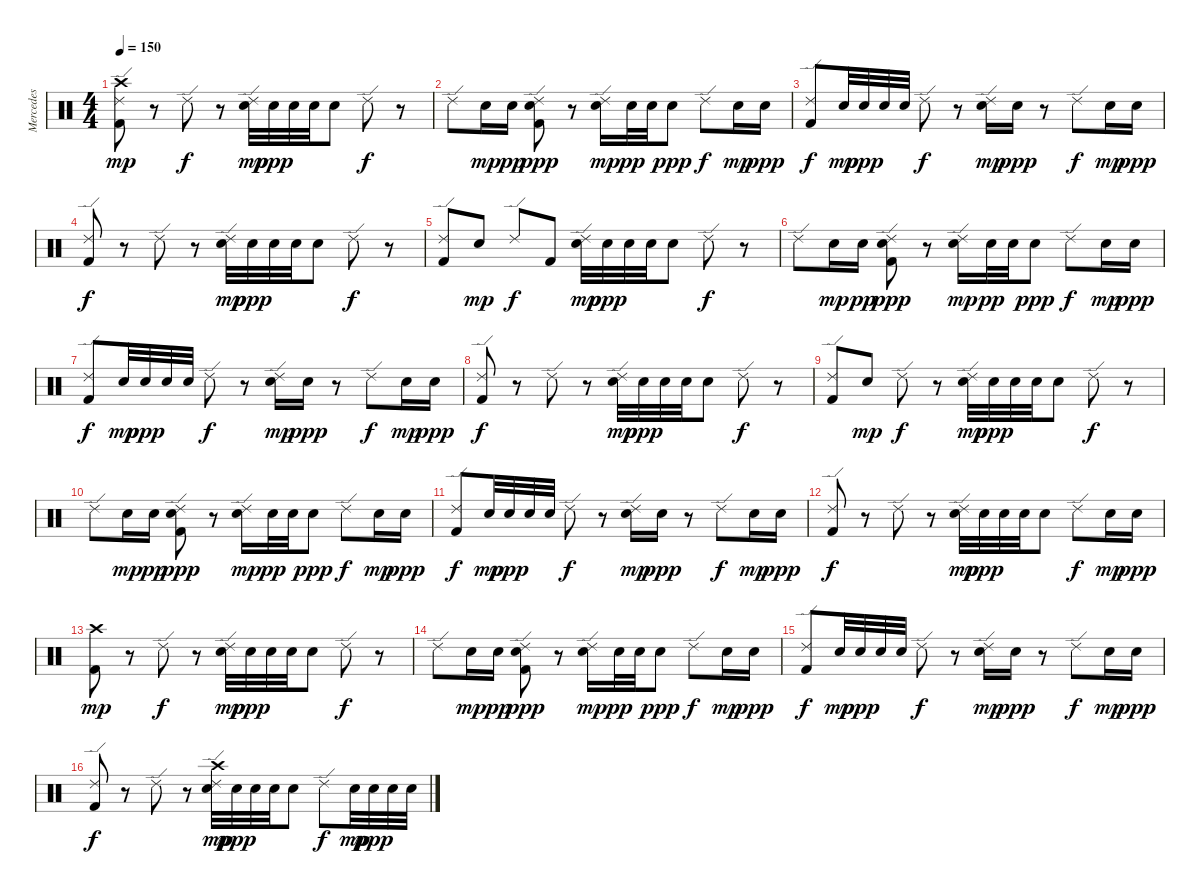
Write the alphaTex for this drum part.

\track ("Mercedes" "Mercedes") {instrument percussion}
\staff {score}
\articulation defaults
\ts (4 4)
\tempo 150
\clef neutral
\ks c
("Crash high (hit)" "Ride (edge) 2" "Kick (hit) 2").8{dy mp} r.8 "Ride (edge) 2".8{dy f} r.8 ("Ride (edge) 2" "Snare (hit) 2").32{dy mp} "Snare (hit) 2".32{dy ppp} "Snare (hit) 2".32 "Snare (hit) 2".32 "Snare (hit) 2".8 "Ride (edge) 2".8{dy f} r.8 |
"Ride (edge) 2".8 "Snare (hit) 2".16{dy mp} "Snare (hit) 2".16{dy pp} ("Ride (edge) 2" "Snare (hit) 2" "Kick (hit) 2").8{dy ppp} r.8 ("Ride (edge) 2" "Snare (hit) 2").16{dy mp} "Snare (hit) 2".32{dy pp} "Snare (hit) 2".32 "Snare (hit) 2".8{dy ppp} "Ride (edge) 2".8{dy f} "Snare (hit) 2".16{dy mp} "Snare (hit) 2".16{dy ppp} |
("Ride (edge) 2" "Kick (hit) 2").8{dy f} "Snare (hit) 2".32{dy mp} "Snare (hit) 2".32{dy ppp} "Snare (hit) 2".32 "Snare (hit) 2".32 "Ride (edge) 2".8{dy f} r.8 ("Ride (edge) 2" "Snare (hit) 2").16{dy mp} "Snare (hit) 2".16{dy ppp} r.8 "Ride (edge) 2".8{dy f} "Snare (hit) 2".16{dy mp} "Snare (hit) 2".16{dy ppp} |
("Ride (edge) 2" "Kick (hit) 2").8{dy f} r.8 "Ride (edge) 2".8 r.8 ("Ride (edge) 2" "Snare (hit) 2").32{dy mp} "Snare (hit) 2".32{dy ppp} "Snare (hit) 2".32 "Snare (hit) 2".32 "Snare (hit) 2".8 "Ride (edge) 2".8{dy f} r.8 |
("Ride (edge) 2" "Kick (hit) 2").8 "Snare (hit) 2".8{dy mp} "Ride (edge) 2".8{dy f} "Kick (hit) 2".8 ("Ride (edge) 2" "Snare (hit) 2").32{dy mp} "Snare (hit) 2".32{dy ppp} "Snare (hit) 2".32 "Snare (hit) 2".32 "Snare (hit) 2".8 "Ride (edge) 2".8{dy f} r.8 |
"Ride (edge) 2".8 "Snare (hit) 2".16{dy mp} "Snare (hit) 2".16{dy pp} ("Ride (edge) 2" "Snare (hit) 2" "Kick (hit) 2").8{dy ppp} r.8 ("Ride (edge) 2" "Snare (hit) 2").16{dy mp} "Snare (hit) 2".32{dy pp} "Snare (hit) 2".32 "Snare (hit) 2".8{dy ppp} "Ride (edge) 2".8{dy f} "Snare (hit) 2".16{dy mp} "Snare (hit) 2".16{dy ppp} |
("Ride (edge) 2" "Kick (hit) 2").8{dy f} "Snare (hit) 2".32{dy mp} "Snare (hit) 2".32{dy ppp} "Snare (hit) 2".32 "Snare (hit) 2".32 "Ride (edge) 2".8{dy f} r.8 ("Ride (edge) 2" "Snare (hit) 2").16{dy mp} "Snare (hit) 2".16{dy ppp} r.8 "Ride (edge) 2".8{dy f} "Snare (hit) 2".16{dy mp} "Snare (hit) 2".16{dy ppp} |
("Ride (edge) 2" "Kick (hit) 2").8{dy f} r.8 "Ride (edge) 2".8 r.8 ("Ride (edge) 2" "Snare (hit) 2").32{dy mp} "Snare (hit) 2".32{dy ppp} "Snare (hit) 2".32 "Snare (hit) 2".32 "Snare (hit) 2".8 "Ride (edge) 2".8{dy f} r.8 |
("Ride (edge) 2" "Kick (hit) 2").8 "Snare (hit) 2".8{dy mp} "Ride (edge) 2".8{dy f} r.8 ("Ride (edge) 2" "Snare (hit) 2").32{dy mp} "Snare (hit) 2".32{dy ppp} "Snare (hit) 2".32 "Snare (hit) 2".32 "Snare (hit) 2".8 "Ride (edge) 2".8{dy f} r.8 |
"Ride (edge) 2".8 "Snare (hit) 2".16{dy mp} "Snare (hit) 2".16{dy pp} ("Ride (edge) 2" "Snare (hit) 2" "Kick (hit) 2").8{dy ppp} r.8 ("Ride (edge) 2" "Snare (hit) 2").16{dy mp} "Snare (hit) 2".32{dy pp} "Snare (hit) 2".32 "Snare (hit) 2".8{dy ppp} "Ride (edge) 2".8{dy f} "Snare (hit) 2".16{dy mp} "Snare (hit) 2".16{dy ppp} |
("Ride (edge) 2" "Kick (hit) 2").8{dy f} "Snare (hit) 2".32{dy mp} "Snare (hit) 2".32{dy ppp} "Snare (hit) 2".32 "Snare (hit) 2".32 "Ride (edge) 2".8{dy f} r.8 ("Ride (edge) 2" "Snare (hit) 2").16{dy mp} "Snare (hit) 2".16{dy ppp} r.8 "Ride (edge) 2".8{dy f} "Snare (hit) 2".16{dy mp} "Snare (hit) 2".16{dy ppp} |
("Ride (edge) 2" "Kick (hit) 2").8{dy f} r.8 "Ride (edge) 2".8 r.8 ("Ride (edge) 2" "Snare (hit) 2").32{dy mp} "Snare (hit) 2".32{dy ppp} "Snare (hit) 2".32 "Snare (hit) 2".32 "Snare (hit) 2".8 "Ride (edge) 2".8{dy f} "Snare (hit) 2".16{dy mp} "Snare (hit) 2".16{dy ppp} |
("Crash high (hit)" "Kick (hit) 2").8{dy mp} r.8 "Ride (edge) 2".8{dy f} r.8 ("Ride (edge) 2" "Snare (hit) 2").32{dy mp} "Snare (hit) 2".32{dy ppp} "Snare (hit) 2".32 "Snare (hit) 2".32 "Snare (hit) 2".8 "Ride (edge) 2".8{dy f} r.8 |
"Ride (edge) 2".8 "Snare (hit) 2".16{dy mp} "Snare (hit) 2".16{dy pp} ("Ride (edge) 2" "Snare (hit) 2" "Kick (hit) 2").8{dy ppp} r.8 ("Ride (edge) 2" "Snare (hit) 2").16{dy mp} "Snare (hit) 2".32{dy pp} "Snare (hit) 2".32 "Snare (hit) 2".8{dy ppp} "Ride (edge) 2".8{dy f} "Snare (hit) 2".16{dy mp} "Snare (hit) 2".16{dy ppp} |
("Ride (edge) 2" "Kick (hit) 2").8{dy f} "Snare (hit) 2".32{dy mp} "Snare (hit) 2".32{dy ppp} "Snare (hit) 2".32 "Snare (hit) 2".32 "Ride (edge) 2".8{dy f} r.8 ("Ride (edge) 2" "Snare (hit) 2").16{dy mp} "Snare (hit) 2".16{dy ppp} r.8 "Ride (edge) 2".8{dy f} "Snare (hit) 2".16{dy mp} "Snare (hit) 2".16{dy ppp} |
("Ride (edge) 2" "Kick (hit) 2").8{dy f} r.8 "Ride (edge) 2".8 r.8 ("Crash high (hit)" "Ride (edge) 2" "Snare (hit) 2").32{dy mp} "Snare (hit) 2".32{dy ppp} "Snare (hit) 2".32 "Snare (hit) 2".32 "Snare (hit) 2".8 "Ride (edge) 2".8{dy f} "Snare (hit) 2".32{dy mp} "Snare (hit) 2".32{dy ppp} "Snare (hit) 2".32 "Snare (hit) 2".32
